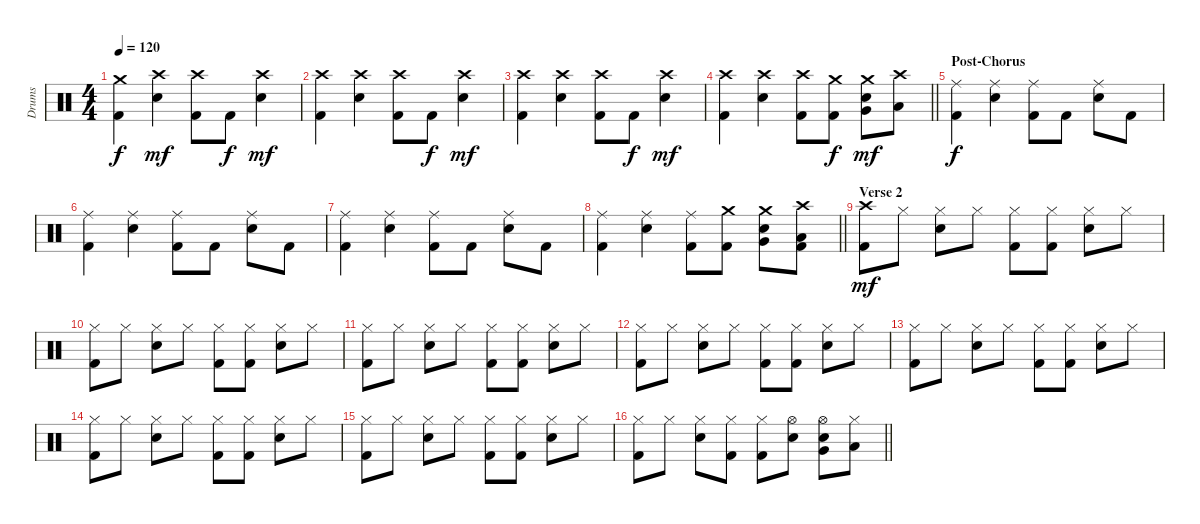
\track ("Drums" "Drums") {instrument percussion}
\staff {score}
\articulation defaults
\ts (4 4)
\tempo 120
\clef neutral
\ks c
("Crash medium (hit)" "Kick (hit) 2").4{dy f} ("Crash high (hit)" "Electric Snare (hit)").4{dy mf} ("Crash high (hit)" "Kick (hit) 2").8 "Kick (hit) 2".8{dy f} ("Crash high (hit)" "Electric Snare (hit)").4{dy mf} |
("Crash high (hit)" "Kick (hit) 2").4 ("Crash high (hit)" "Electric Snare (hit)").4 ("Crash high (hit)" "Kick (hit) 2").8 "Kick (hit) 2".8{dy f} ("Crash high (hit)" "Electric Snare (hit)").4{dy mf} |
("Crash high (hit)" "Kick (hit) 2").4 ("Crash high (hit)" "Electric Snare (hit)").4 ("Crash high (hit)" "Kick (hit) 2").8 "Kick (hit) 2".8{dy f} ("Crash high (hit)" "Electric Snare (hit)").4{dy mf} |
\barLineRight lightlight
("Crash high (hit)" "Kick (hit) 2").4 ("Crash high (hit)" "Electric Snare (hit)").4 ("Crash high (hit)" "Kick (hit) 2").8 ("Crash medium (hit)" "Kick (hit) 2").8{dy f} ("Crash medium (hit)" "Very Low Tom (hit)" "Electric Snare (hit)").8{dy mf} ("Crash high (hit)" "Low Floor Tom (hit)").8 |
\section ("" "Post-Chorus")
("Ride (middle)" "Kick (hit) 2").4{dy f} ("Ride (middle)" "Electric Snare (hit)").4 ("Ride (middle)" "Kick (hit) 2").8 "Kick (hit) 2".8 ("Ride (middle)" "Electric Snare (hit)").8 "Kick (hit) 2".8 |
("Ride (middle)" "Kick (hit) 2").4 ("Ride (middle)" "Electric Snare (hit)").4 ("Ride (middle)" "Kick (hit) 2").8 "Kick (hit) 2".8 ("Ride (middle)" "Electric Snare (hit)").8 "Kick (hit) 2".8 |
("Ride (middle)" "Kick (hit) 2").4 ("Ride (middle)" "Electric Snare (hit)").4 ("Ride (middle)" "Kick (hit) 2").8 "Kick (hit) 2".8 ("Ride (middle)" "Electric Snare (hit)").8 "Kick (hit) 2".8 |
\barLineRight lightlight
("Ride (middle)" "Kick (hit) 2").4 ("Ride (middle)" "Electric Snare (hit)").4 ("Ride (middle)" "Kick (hit) 2").8 ("Crash medium (hit)" "Kick (hit) 2").8 ("Crash medium (hit)" "Very Low Tom (hit)" "Electric Snare (hit)").8 ("Crash high (hit)" "Low Floor Tom (hit)" "Kick (hit) 2").8 |
\section ("" "Verse 2")
("Crash high (hit)" "Kick (hit) 2").8{dy mf} "Hi-Hat (closed)".8 ("Hi-Hat (closed)" "Snare (hit) 2").8 "Hi-Hat (closed)".8 ("Hi-Hat (closed)" "Kick (hit) 2").8 ("Hi-Hat (closed)" "Kick (hit) 2").8 ("Hi-Hat (closed)" "Snare (hit) 2").8 "Hi-Hat (closed)".8 |
("Hi-Hat (closed)" "Kick (hit) 2").8 "Hi-Hat (closed)".8 ("Hi-Hat (closed)" "Snare (hit) 2").8 "Hi-Hat (closed)".8 ("Hi-Hat (closed)" "Kick (hit) 2").8 ("Hi-Hat (closed)" "Kick (hit) 2").8 ("Hi-Hat (closed)" "Snare (hit) 2").8 "Hi-Hat (closed)".8 |
("Hi-Hat (closed)" "Kick (hit) 2").8 "Hi-Hat (closed)".8 ("Hi-Hat (closed)" "Snare (hit) 2").8 "Hi-Hat (closed)".8 ("Hi-Hat (closed)" "Kick (hit) 2").8 ("Hi-Hat (closed)" "Kick (hit) 2").8 ("Hi-Hat (closed)" "Snare (hit) 2").8 "Hi-Hat (closed)".8 |
("Hi-Hat (closed)" "Kick (hit) 2").8 "Hi-Hat (closed)".8 ("Hi-Hat (closed)" "Snare (hit) 2").8 "Hi-Hat (closed)".8 ("Hi-Hat (closed)" "Kick (hit) 2").8 ("Hi-Hat (closed)" "Kick (hit) 2").8 ("Hi-Hat (closed)" "Snare (hit) 2").8 "Hi-Hat (closed)".8 |
("Hi-Hat (closed)" "Kick (hit) 2").8 "Hi-Hat (closed)".8 ("Hi-Hat (closed)" "Snare (hit) 2").8 "Hi-Hat (closed)".8 ("Hi-Hat (closed)" "Kick (hit) 2").8 ("Hi-Hat (closed)" "Kick (hit) 2").8 ("Hi-Hat (closed)" "Snare (hit) 2").8 "Hi-Hat (closed)".8 |
("Hi-Hat (closed)" "Kick (hit) 2").8 "Hi-Hat (closed)".8 ("Hi-Hat (closed)" "Snare (hit) 2").8 "Hi-Hat (closed)".8 ("Hi-Hat (closed)" "Kick (hit) 2").8 ("Hi-Hat (closed)" "Kick (hit) 2").8 ("Hi-Hat (closed)" "Snare (hit) 2").8 "Hi-Hat (closed)".8 |
("Hi-Hat (closed)" "Kick (hit) 2").8 "Hi-Hat (closed)".8 ("Hi-Hat (closed)" "Snare (hit) 2").8 "Hi-Hat (closed)".8 ("Hi-Hat (closed)" "Kick (hit) 2").8 ("Hi-Hat (closed)" "Kick (hit) 2").8 ("Hi-Hat (closed)" "Snare (hit) 2").8 "Hi-Hat (closed)".8 |
\barLineRight lightlight
("Hi-Hat (closed)" "Kick (hit) 2").8 "Hi-Hat (closed)".8 ("Hi-Hat (closed)" "Snare (hit) 2").8 ("Hi-Hat (closed)" "Kick (hit) 2").8 ("Hi-Hat (closed)" "Kick (hit) 2").8 ("Hi-Hat (open)" "Snare (hit) 2").8 ("Hi-Hat (open)" "Very Low Tom (hit)" "Snare (hit) 2").8 ("Hi-Hat (closed)" "Low Floor Tom (hit)").8
